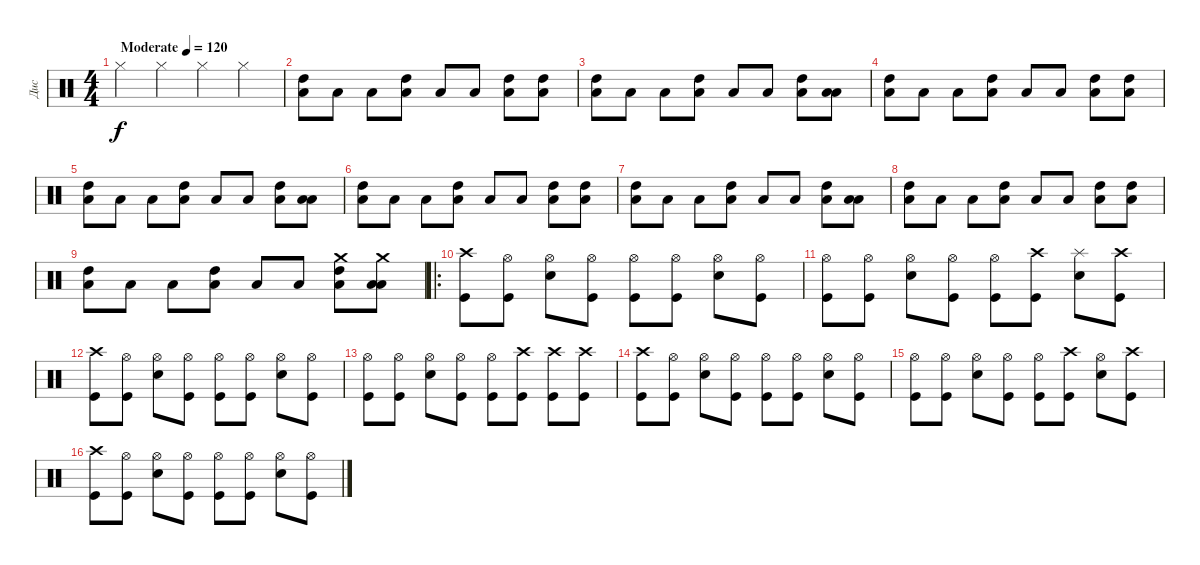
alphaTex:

\track ("Дис" "Дис") {instrument percussion}
\staff {score}
\articulation defaults
\ts (4 4)
\tempo (120 "Moderate")
\clef neutral
\ks c "Hi-Hat (closed)".4{dy f} "Hi-Hat (closed)".4 "Hi-Hat (closed)".4 "Hi-Hat (closed)".4
|
("High Tom (hit)" "Low Tom (hit)").8 "Low Tom (hit)".8 "Low Tom (hit)".8 ("High Tom (hit)" "Low Tom (hit)").8 "Low Tom (hit)".8 "Low Tom (hit)".8 ("High Tom (hit)" "Low Tom (hit)").8 ("High Tom (hit)" "Low Tom (hit)").8 |
("High Tom (hit)" "Low Tom (hit)").8 "Low Tom (hit)".8 "Low Tom (hit)".8 ("High Tom (hit)" "Low Tom (hit)").8 "Low Tom (hit)".8 "Low Tom (hit)".8 ("High Tom (hit)" "Low Tom (hit)").8 ("Low Tom (hit)" "Low Tom (hit)").8 |
("High Tom (hit)" "Low Tom (hit)").8 "Low Tom (hit)".8 "Low Tom (hit)".8 ("High Tom (hit)" "Low Tom (hit)").8 "Low Tom (hit)".8 "Low Tom (hit)".8 ("High Tom (hit)" "Low Tom (hit)").8 ("High Tom (hit)" "Low Tom (hit)").8 |
("High Tom (hit)" "Low Tom (hit)").8 "Low Tom (hit)".8 "Low Tom (hit)".8 ("High Tom (hit)" "Low Tom (hit)").8 "Low Tom (hit)".8 "Low Tom (hit)".8 ("High Tom (hit)" "Low Tom (hit)").8 ("Low Tom (hit)" "Low Tom (hit)").8 |
("High Tom (hit)" "Low Tom (hit)").8 "Low Tom (hit)".8 "Low Tom (hit)".8 ("High Tom (hit)" "Low Tom (hit)").8 "Low Tom (hit)".8 "Low Tom (hit)".8 ("High Tom (hit)" "Low Tom (hit)").8 ("High Tom (hit)" "Low Tom (hit)").8 |
("High Tom (hit)" "Low Tom (hit)").8 "Low Tom (hit)".8 "Low Tom (hit)".8 ("High Tom (hit)" "Low Tom (hit)").8 "Low Tom (hit)".8 "Low Tom (hit)".8 ("High Tom (hit)" "Low Tom (hit)").8 ("Low Tom (hit)" "Low Tom (hit)").8 |
("High Tom (hit)" "Low Tom (hit)").8 "Low Tom (hit)".8 "Low Tom (hit)".8 ("High Tom (hit)" "Low Tom (hit)").8 "Low Tom (hit)".8 "Low Tom (hit)".8 ("High Tom (hit)" "Low Tom (hit)").8 ("High Tom (hit)" "Low Tom (hit)").8 |
("High Tom (hit)" "Low Tom (hit)").8 "Low Tom (hit)".8 "Low Tom (hit)".8 ("High Tom (hit)" "Low Tom (hit)").8 "Low Tom (hit)".8 "Low Tom (hit)".8 ("Crash medium (hit)" "High Tom (hit)" "Low Tom (hit)").8 ("Crash medium (hit)" "Low Tom (hit)" "Low Tom (hit)").8 |
\ro
("Crash high (hit)" "Kick (hit)").8 ("Hi-Hat (open)" "Kick (hit)").8 ("Hi-Hat (open)" "Electric Snare (hit)").8 ("Hi-Hat (open)" "Kick (hit)").8 ("Hi-Hat (open)" "Kick (hit)").8 ("Hi-Hat (open)" "Kick (hit)").8 ("Hi-Hat (open)" "Electric Snare (hit)").8 ("Hi-Hat (open)" "Kick (hit)").8 |
("Hi-Hat (open)" "Kick (hit)").8 ("Hi-Hat (open)" "Kick (hit)").8 ("Hi-Hat (open)" "Electric Snare (hit)").8 ("Hi-Hat (open)" "Kick (hit)").8 ("Hi-Hat (open)" "Kick (hit)").8 ("Crash high (hit)" "Kick (hit)").8 ("Splash (hit)" "Electric Snare (hit)").8 ("Crash high (hit)" "Kick (hit)").8 |
("Crash high (hit)" "Kick (hit)").8 ("Hi-Hat (open)" "Kick (hit)").8 ("Hi-Hat (open)" "Electric Snare (hit)").8 ("Hi-Hat (open)" "Kick (hit)").8 ("Hi-Hat (open)" "Kick (hit)").8 ("Hi-Hat (open)" "Kick (hit)").8 ("Hi-Hat (open)" "Electric Snare (hit)").8 ("Hi-Hat (open)" "Kick (hit)").8 |
("Hi-Hat (open)" "Kick (hit)").8 ("Hi-Hat (open)" "Kick (hit)").8 ("Hi-Hat (open)" "Electric Snare (hit)").8 ("Hi-Hat (open)" "Kick (hit)").8 ("Hi-Hat (open)" "Kick (hit)").8 ("Crash high (hit)" "Kick (hit)").8 ("Crash high (hit)" "Kick (hit)").8 ("Crash high (hit)" "Kick (hit)").8 |
("Crash high (hit)" "Kick (hit)").8 ("Hi-Hat (open)" "Kick (hit)").8 ("Hi-Hat (open)" "Electric Snare (hit)").8 ("Hi-Hat (open)" "Kick (hit)").8 ("Hi-Hat (open)" "Kick (hit)").8 ("Hi-Hat (open)" "Kick (hit)").8 ("Hi-Hat (open)" "Electric Snare (hit)").8 ("Hi-Hat (open)" "Kick (hit)").8 |
("Hi-Hat (open)" "Kick (hit)").8 ("Hi-Hat (open)" "Kick (hit)").8 ("Hi-Hat (open)" "Electric Snare (hit)").8 ("Hi-Hat (open)" "Kick (hit)").8 ("Hi-Hat (open)" "Kick (hit)").8 ("Crash high (hit)" "Kick (hit)").8 ("Hi-Hat (open)" "Electric Snare (hit)").8 ("Crash high (hit)" "Kick (hit)").8 |
("Crash high (hit)" "Kick (hit)").8 ("Hi-Hat (open)" "Kick (hit)").8 ("Hi-Hat (open)" "Electric Snare (hit)").8 ("Hi-Hat (open)" "Kick (hit)").8 ("Hi-Hat (open)" "Kick (hit)").8 ("Hi-Hat (open)" "Kick (hit)").8 ("Hi-Hat (open)" "Electric Snare (hit)").8 ("Hi-Hat (open)" "Kick (hit)").8
